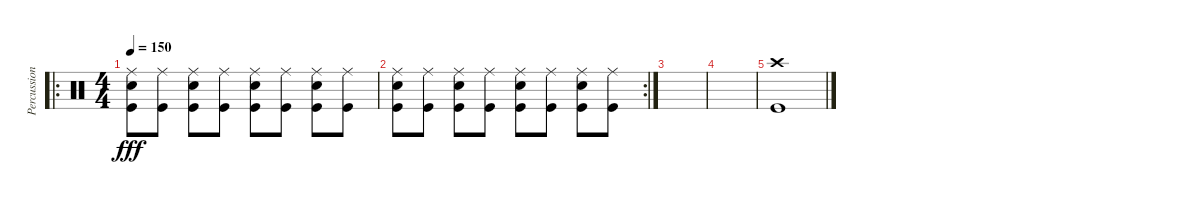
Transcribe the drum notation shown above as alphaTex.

\track ("Percussioni" "Percussion") {instrument percussion}
\staff {score}
\articulation defaults
\ro
\ts (4 4)
\tempo 150
\clef neutral
\ks c
("Ride (middle)" "Snare (hit) 2" "Kick (hit)").8{dy fff} ("Ride (middle)" "Kick (hit)").8 ("Ride (middle)" "Snare (hit) 2" "Kick (hit)").8 ("Ride (middle)" "Kick (hit)").8 ("Ride (middle)" "Snare (hit) 2" "Kick (hit)").8 ("Ride (middle)" "Kick (hit)").8 ("Ride (middle)" "Snare (hit) 2" "Kick (hit)").8 ("Ride (middle)" "Kick (hit)").8 |
\rc 2
("Ride (middle)" "Snare (hit) 2" "Kick (hit)").8 ("Ride (middle)" "Kick (hit)").8 ("Ride (middle)" "Snare (hit) 2" "Kick (hit)").8 ("Ride (middle)" "Kick (hit)").8 ("Ride (middle)" "Snare (hit) 2" "Kick (hit)").8 ("Ride (middle)" "Kick (hit)").8 ("Ride (middle)" "Snare (hit) 2" "Kick (hit)").8 ("Ride (middle)" "Kick (hit)").8 |
|
|
("Crash high (hit)" "Kick (hit)").1
